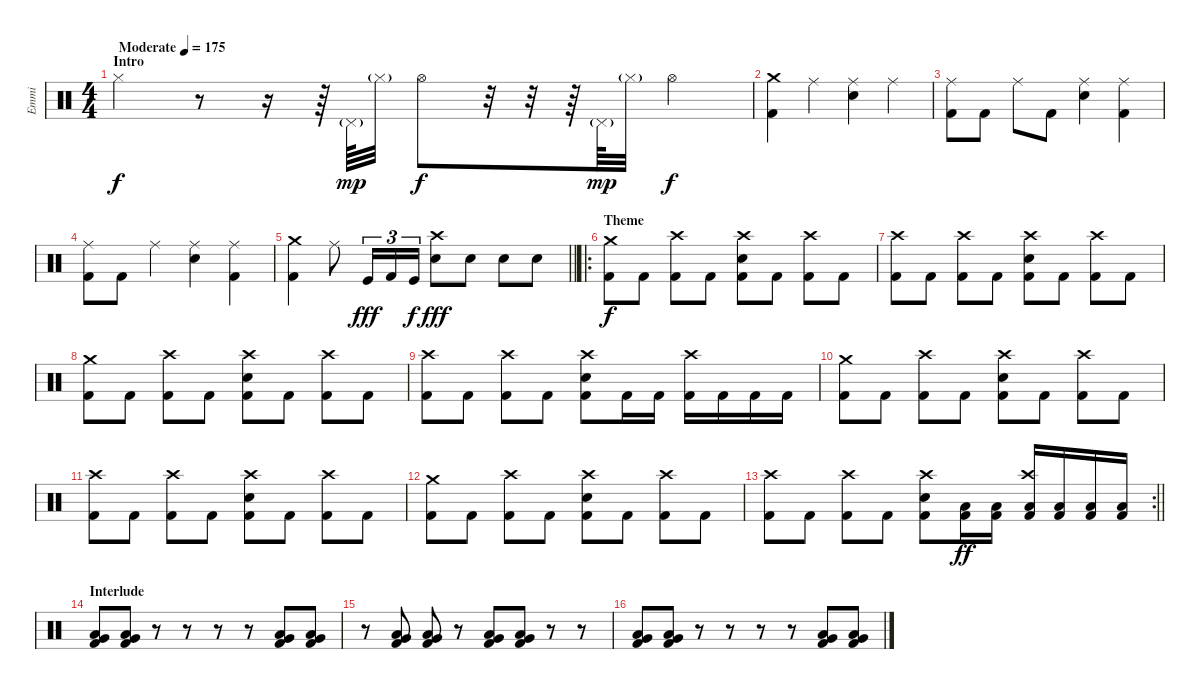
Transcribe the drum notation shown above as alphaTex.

\track ("Emmi" "Emmi") {instrument percussion}
\staff {score}
\articulation defaults
\ts (4 4)
\section ("" "Intro")
\tempo (175 "Moderate")
\clef neutral
\ks c "Hi-Hat (closed)".4{dy f}
r.8 r.16 r.64 "Pedal Hi-Hat (hit)"{g}.64{dy mp} "Hi-Hat (closed)"{g}.32 "Hi-Hat (open)".8{dy f} r.32 r.32 r.64 "Pedal Hi-Hat (hit)"{g}.64{dy mp} "Hi-Hat (closed)"{g}.32 "Hi-Hat (open)".4{dy f} |
("Crash medium (hit)" "Kick (hit) 2").4 "Ride (middle)".4 ("Ride (middle)" "Electric Snare (hit)").4 "Ride (middle)".4 |
("Ride (middle)" "Kick (hit) 2").8 "Kick (hit) 2".8 "Ride (middle)".8 "Kick (hit) 2".8 ("Ride (middle)" "Electric Snare (hit)").4 ("Ride (middle)" "Kick (hit) 2").4 |
("Ride (middle)" "Kick (hit) 2").8 "Kick (hit) 2".8 "Ride (middle)".4 ("Ride (middle)" "Electric Snare (hit)").4 ("Ride (middle)" "Kick (hit) 2").4 |
\barLineRight lightlight
("Crash medium (hit)" "Kick (hit) 2").4 "Ride (middle)".8 "Kick (hit)".16{tu (3 2) dy fff} "Kick (hit) 2".16{tu (3 2)} "Kick (hit)".16{tu (3 2) dy f} ("Crash high (hit)" "Electric Snare (hit)").8{dy fff} "Electric Snare (hit)".8 "Electric Snare (hit)".8 "Electric Snare (hit)".8 |
\ro
\section ("" "Theme")
("Crash medium (hit)" "Kick (hit) 2").8{dy f} "Kick (hit) 2".8 ("Crash high (hit)" "Kick (hit) 2").8 "Kick (hit) 2".8 ("Crash high (hit)" "Electric Snare (hit)" "Kick (hit) 2").8 "Kick (hit) 2".8 ("Crash high (hit)" "Kick (hit) 2").8 "Kick (hit) 2".8 |
("Crash high (hit)" "Kick (hit) 2").8 "Kick (hit) 2".8 ("Crash high (hit)" "Kick (hit) 2").8 "Kick (hit) 2".8 ("Crash high (hit)" "Electric Snare (hit)" "Kick (hit) 2").8 "Kick (hit) 2".8 ("Crash high (hit)" "Kick (hit) 2").8 "Kick (hit) 2".8 |
("Crash medium (hit)" "Kick (hit) 2").8 "Kick (hit) 2".8 ("Crash high (hit)" "Kick (hit) 2").8 "Kick (hit) 2".8 ("Crash high (hit)" "Electric Snare (hit)" "Kick (hit) 2").8 "Kick (hit) 2".8 ("Crash high (hit)" "Kick (hit) 2").8 "Kick (hit) 2".8 |
("Crash high (hit)" "Kick (hit) 2").8 "Kick (hit) 2".8 ("Crash high (hit)" "Kick (hit) 2").8 "Kick (hit) 2".8 ("Crash high (hit)" "Electric Snare (hit)" "Kick (hit) 2").8 "Kick (hit) 2".16 "Kick (hit) 2".16 ("Crash high (hit)" "Kick (hit) 2").16 "Kick (hit) 2".16 "Kick (hit) 2".16 "Kick (hit) 2".16 |
("Crash medium (hit)" "Kick (hit) 2").8 "Kick (hit) 2".8 ("Crash high (hit)" "Kick (hit) 2").8 "Kick (hit) 2".8 ("Crash high (hit)" "Electric Snare (hit)" "Kick (hit) 2").8 "Kick (hit) 2".8 ("Crash high (hit)" "Kick (hit) 2").8 "Kick (hit) 2".8 |
("Crash high (hit)" "Kick (hit) 2").8 "Kick (hit) 2".8 ("Crash high (hit)" "Kick (hit) 2").8 "Kick (hit) 2".8 ("Crash high (hit)" "Electric Snare (hit)" "Kick (hit) 2").8 "Kick (hit) 2".8 ("Crash high (hit)" "Kick (hit) 2").8 "Kick (hit) 2".8 |
("Crash medium (hit)" "Kick (hit) 2").8 "Kick (hit) 2".8 ("Crash high (hit)" "Kick (hit) 2").8 "Kick (hit) 2".8 ("Crash high (hit)" "Electric Snare (hit)" "Kick (hit) 2").8 "Kick (hit) 2".8 ("Crash high (hit)" "Kick (hit) 2").8 "Kick (hit) 2".8 |
\rc 2
\barLineRight lightlight
("Crash high (hit)" "Kick (hit) 2").8 "Kick (hit) 2".8 ("Crash high (hit)" "Kick (hit) 2").8 "Kick (hit) 2".8 ("Crash high (hit)" "Electric Snare (hit)" "Kick (hit) 2").8 ("Low Floor Tom (hit)" "Kick (hit) 2").16{dy ff} ("Low Floor Tom (hit)" "Kick (hit) 2").16 ("Crash high (hit)" "Low Floor Tom (hit)" "Kick (hit) 2").16 ("Low Floor Tom (hit)" "Kick (hit) 2").16 ("Low Floor Tom (hit)" "Kick (hit) 2").16 ("Low Floor Tom (hit)" "Kick (hit) 2").16 |
\section ("" "Interlude")
("Very Low Tom (hit)" "Low Floor Tom (hit)" "Kick (hit) 2").8 ("Very Low Tom (hit)" "Low Floor Tom (hit)" "Kick (hit) 2").8 r.8 r.8 r.8 r.8 ("Very Low Tom (hit)" "Low Floor Tom (hit)" "Kick (hit) 2").8 ("Very Low Tom (hit)" "Low Floor Tom (hit)" "Kick (hit) 2").8 |
r.8 ("Very Low Tom (hit)" "Low Floor Tom (hit)" "Kick (hit) 2").8 ("Very Low Tom (hit)" "Low Floor Tom (hit)" "Kick (hit) 2").8 r.8 ("Very Low Tom (hit)" "Low Floor Tom (hit)" "Kick (hit) 2").8 ("Very Low Tom (hit)" "Low Floor Tom (hit)" "Kick (hit) 2").8 r.8 r.8 |
("Very Low Tom (hit)" "Low Floor Tom (hit)" "Kick (hit) 2").8 ("Very Low Tom (hit)" "Low Floor Tom (hit)" "Kick (hit) 2").8 r.8 r.8 r.8 r.8 ("Very Low Tom (hit)" "Low Floor Tom (hit)" "Kick (hit) 2").8 ("Very Low Tom (hit)" "Low Floor Tom (hit)" "Kick (hit) 2").8
